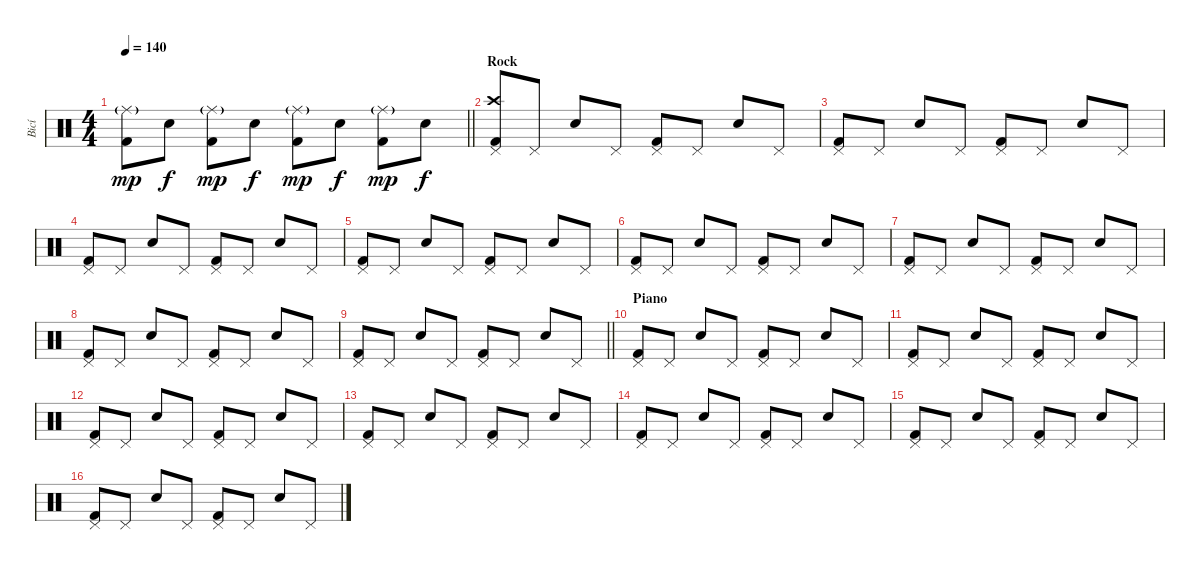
\track ("Bicí" "Bicí") {instrument percussion}
\staff {score}
\articulation defaults
\ts (4 4)
\tempo 140
\clef neutral
\barLineRight lightlight
\ks c
("Ride (middle)"{g} "Kick (hit) 2").8{dy mp} "Snare (hit)".8{dy f} ("Ride (middle)"{g} "Kick (hit) 2").8{dy mp} "Snare (hit)".8{dy f} ("Ride (middle)"{g} "Kick (hit) 2").8{dy mp} "Snare (hit)".8{dy f} ("Ride (middle)"{g} "Kick (hit) 2").8{dy mp} "Snare (hit)".8{dy f} |
\section ("" "Rock")
("Crash high (hit)" "Pedal Hi-Hat (hit)" "Kick (hit) 2").8 "Pedal Hi-Hat (hit)".8 "Electric Snare (hit)".8 "Pedal Hi-Hat (hit)".8 ("Pedal Hi-Hat (hit)" "Kick (hit) 2").8 "Pedal Hi-Hat (hit)".8 "Electric Snare (hit)".8 "Pedal Hi-Hat (hit)".8 |
("Pedal Hi-Hat (hit)" "Kick (hit) 2").8 "Pedal Hi-Hat (hit)".8 "Electric Snare (hit)".8 "Pedal Hi-Hat (hit)".8 ("Pedal Hi-Hat (hit)" "Kick (hit) 2").8 "Pedal Hi-Hat (hit)".8 "Electric Snare (hit)".8 "Pedal Hi-Hat (hit)".8 |
("Pedal Hi-Hat (hit)" "Kick (hit) 2").8 "Pedal Hi-Hat (hit)".8 "Electric Snare (hit)".8 "Pedal Hi-Hat (hit)".8 ("Pedal Hi-Hat (hit)" "Kick (hit) 2").8 "Pedal Hi-Hat (hit)".8 "Electric Snare (hit)".8 "Pedal Hi-Hat (hit)".8 |
("Pedal Hi-Hat (hit)" "Kick (hit) 2").8 "Pedal Hi-Hat (hit)".8 "Electric Snare (hit)".8 "Pedal Hi-Hat (hit)".8 ("Pedal Hi-Hat (hit)" "Kick (hit) 2").8 "Pedal Hi-Hat (hit)".8 "Electric Snare (hit)".8 "Pedal Hi-Hat (hit)".8 |
("Pedal Hi-Hat (hit)" "Kick (hit) 2").8 "Pedal Hi-Hat (hit)".8 "Electric Snare (hit)".8 "Pedal Hi-Hat (hit)".8 ("Pedal Hi-Hat (hit)" "Kick (hit) 2").8 "Pedal Hi-Hat (hit)".8 "Electric Snare (hit)".8 "Pedal Hi-Hat (hit)".8 |
("Pedal Hi-Hat (hit)" "Kick (hit) 2").8 "Pedal Hi-Hat (hit)".8 "Electric Snare (hit)".8 "Pedal Hi-Hat (hit)".8 ("Pedal Hi-Hat (hit)" "Kick (hit) 2").8 "Pedal Hi-Hat (hit)".8 "Electric Snare (hit)".8 "Pedal Hi-Hat (hit)".8 |
("Pedal Hi-Hat (hit)" "Kick (hit) 2").8 "Pedal Hi-Hat (hit)".8 "Electric Snare (hit)".8 "Pedal Hi-Hat (hit)".8 ("Pedal Hi-Hat (hit)" "Kick (hit) 2").8 "Pedal Hi-Hat (hit)".8 "Electric Snare (hit)".8 "Pedal Hi-Hat (hit)".8 |
\barLineRight lightlight
("Pedal Hi-Hat (hit)" "Kick (hit) 2").8 "Pedal Hi-Hat (hit)".8 "Electric Snare (hit)".8 "Pedal Hi-Hat (hit)".8 ("Pedal Hi-Hat (hit)" "Kick (hit) 2").8 "Pedal Hi-Hat (hit)".8 "Electric Snare (hit)".8 "Pedal Hi-Hat (hit)".8 |
\section ("" "Piano")
("Pedal Hi-Hat (hit)" "Kick (hit) 2").8 "Pedal Hi-Hat (hit)".8 "Electric Snare (hit)".8 "Pedal Hi-Hat (hit)".8 ("Pedal Hi-Hat (hit)" "Kick (hit) 2").8 "Pedal Hi-Hat (hit)".8 "Electric Snare (hit)".8 "Pedal Hi-Hat (hit)".8 |
("Pedal Hi-Hat (hit)" "Kick (hit) 2").8 "Pedal Hi-Hat (hit)".8 "Electric Snare (hit)".8 "Pedal Hi-Hat (hit)".8 ("Pedal Hi-Hat (hit)" "Kick (hit) 2").8 "Pedal Hi-Hat (hit)".8 "Electric Snare (hit)".8 "Pedal Hi-Hat (hit)".8 |
("Pedal Hi-Hat (hit)" "Kick (hit) 2").8 "Pedal Hi-Hat (hit)".8 "Electric Snare (hit)".8 "Pedal Hi-Hat (hit)".8 ("Pedal Hi-Hat (hit)" "Kick (hit) 2").8 "Pedal Hi-Hat (hit)".8 "Electric Snare (hit)".8 "Pedal Hi-Hat (hit)".8 |
("Pedal Hi-Hat (hit)" "Kick (hit) 2").8 "Pedal Hi-Hat (hit)".8 "Electric Snare (hit)".8 "Pedal Hi-Hat (hit)".8 ("Pedal Hi-Hat (hit)" "Kick (hit) 2").8 "Pedal Hi-Hat (hit)".8 "Electric Snare (hit)".8 "Pedal Hi-Hat (hit)".8 |
("Pedal Hi-Hat (hit)" "Kick (hit) 2").8 "Pedal Hi-Hat (hit)".8 "Electric Snare (hit)".8 "Pedal Hi-Hat (hit)".8 ("Pedal Hi-Hat (hit)" "Kick (hit) 2").8 "Pedal Hi-Hat (hit)".8 "Electric Snare (hit)".8 "Pedal Hi-Hat (hit)".8 |
("Pedal Hi-Hat (hit)" "Kick (hit) 2").8 "Pedal Hi-Hat (hit)".8 "Electric Snare (hit)".8 "Pedal Hi-Hat (hit)".8 ("Pedal Hi-Hat (hit)" "Kick (hit) 2").8 "Pedal Hi-Hat (hit)".8 "Electric Snare (hit)".8 "Pedal Hi-Hat (hit)".8 |
("Pedal Hi-Hat (hit)" "Kick (hit) 2").8 "Pedal Hi-Hat (hit)".8 "Electric Snare (hit)".8 "Pedal Hi-Hat (hit)".8 ("Pedal Hi-Hat (hit)" "Kick (hit) 2").8 "Pedal Hi-Hat (hit)".8 "Electric Snare (hit)".8 "Pedal Hi-Hat (hit)".8
